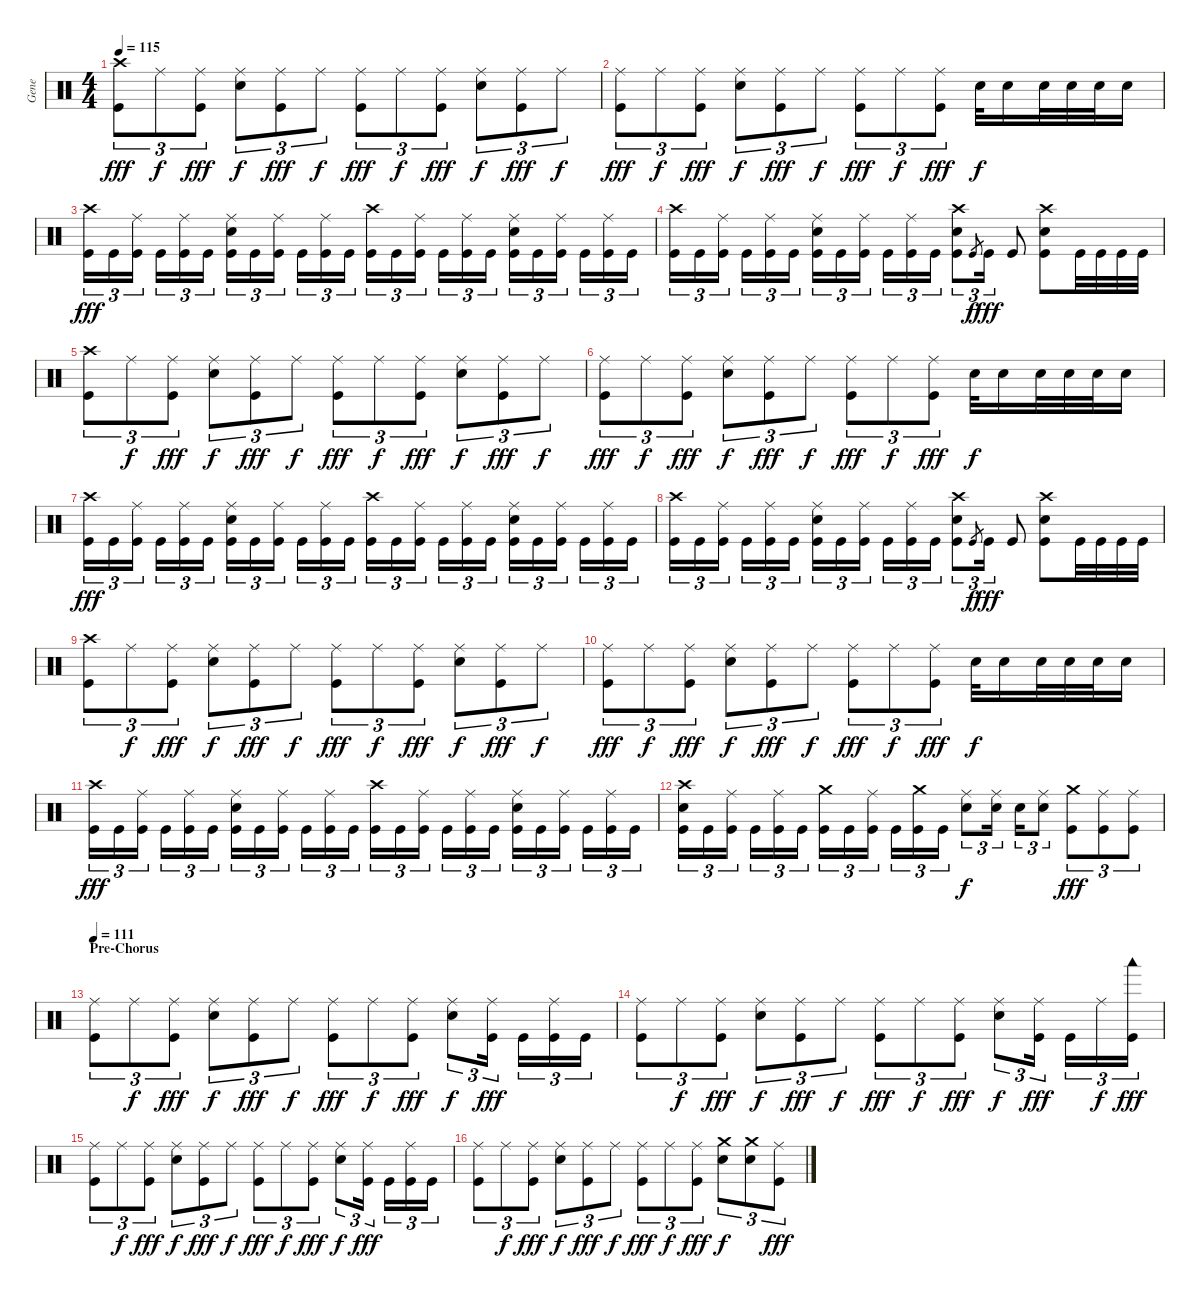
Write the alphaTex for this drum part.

\track ("Gene" "Gene") {instrument percussion}
\staff {score}
\articulation defaults
\ts (4 4)
\tempo 115
\clef neutral
\ks c
("Crash high (hit)" "Kick (hit)").8{tu (3 2) dy fff} "Ride (middle)".8{tu (3 2) dy f} ("Ride (middle)" "Kick (hit)").8{tu (3 2) dy fff} ("Ride (middle)" "Snare (hit) 2").8{tu (3 2) dy f} ("Ride (middle)" "Kick (hit)").8{tu (3 2) dy fff} "Ride (middle)".8{tu (3 2) dy f} ("Ride (middle)" "Kick (hit)").8{tu (3 2) dy fff} "Ride (middle)".8{tu (3 2) dy f} ("Ride (middle)" "Kick (hit)").8{tu (3 2) dy fff} ("Ride (middle)" "Snare (hit) 2").8{tu (3 2) dy f} ("Ride (middle)" "Kick (hit)").8{tu (3 2) dy fff} "Ride (middle)".8{tu (3 2) dy f} |
("Ride (middle)" "Kick (hit)").8{tu (3 2) dy fff} "Ride (middle)".8{tu (3 2) dy f} ("Ride (middle)" "Kick (hit)").8{tu (3 2) dy fff} ("Ride (middle)" "Snare (hit) 2").8{tu (3 2) dy f} ("Ride (middle)" "Kick (hit)").8{tu (3 2) dy fff} "Ride (middle)".8{tu (3 2) dy f} ("Ride (middle)" "Kick (hit)").8{tu (3 2) dy fff} "Ride (middle)".8{tu (3 2) dy f} ("Ride (middle)" "Kick (hit)").8{tu (3 2) dy fff} "Snare (hit) 2".32{dy f} "Snare (hit) 2".16 "Snare (hit) 2".32 "Snare (hit) 2".32 "Snare (hit) 2".32 "Snare (hit) 2".16 |
("Crash high (hit)" "Kick (hit)").16{tu (3 2) dy fff} "Kick (hit)".16{tu (3 2)} ("Ride (middle)" "Kick (hit)").16{tu (3 2)} "Kick (hit)".16{tu (3 2)} ("Ride (middle)" "Kick (hit)").16{tu (3 2)} "Kick (hit)".16{tu (3 2)} ("Ride (middle)" "Snare (hit) 2" "Kick (hit)").16{tu (3 2)} "Kick (hit)".16{tu (3 2)} ("Ride (middle)" "Kick (hit)").16{tu (3 2)} "Kick (hit)".16{tu (3 2)} ("Ride (middle)" "Kick (hit)").16{tu (3 2)} "Kick (hit)".16{tu (3 2)} ("Crash high (hit)" "Kick (hit)").16{tu (3 2)} "Kick (hit)".16{tu (3 2)} ("Ride (middle)" "Kick (hit)").16{tu (3 2)} "Kick (hit)".16{tu (3 2)} ("Ride (middle)" "Kick (hit)").16{tu (3 2)} "Kick (hit)".16{tu (3 2)} ("Ride (middle)" "Snare (hit) 2" "Kick (hit)").16{tu (3 2)} "Kick (hit)".16{tu (3 2)} ("Ride (middle)" "Kick (hit)").16{tu (3 2)} "Kick (hit)".16{tu (3 2)} ("Ride (middle)" "Kick (hit)").16{tu (3 2)} "Kick (hit)".16{tu (3 2)} |
("Crash high (hit)" "Kick (hit)").16{tu (3 2)} "Kick (hit)".16{tu (3 2)} ("Ride (middle)" "Kick (hit)").16{tu (3 2)} "Kick (hit)".16{tu (3 2)} ("Ride (middle)" "Kick (hit)").16{tu (3 2)} "Kick (hit)".16{tu (3 2)} ("Ride (middle)" "Snare (hit) 2" "Kick (hit)").16{tu (3 2)} "Kick (hit)".16{tu (3 2)} ("Ride (middle)" "Kick (hit)").16{tu (3 2)} "Kick (hit)".16{tu (3 2)} ("Ride (middle)" "Kick (hit)").16{tu (3 2)} "Kick (hit)".16{tu (3 2)} ("Crash high (hit)" "Snare (hit) 2" "Kick (hit)").8{tu (3 2)} "Kick (hit)".8{gr dy f} "Kick (hit)".16{tu (3 2) dy fff} "Kick (hit)".8 ("Crash high (hit)" "Snare (hit) 2" "Kick (hit)").8 "Kick (hit)".32 "Kick (hit)".32 "Kick (hit)".32 "Kick (hit)".32 |
("Crash high (hit)" "Kick (hit)").8{tu (3 2)} "Ride (middle)".8{tu (3 2) dy f} ("Ride (middle)" "Kick (hit)").8{tu (3 2) dy fff} ("Ride (middle)" "Snare (hit) 2").8{tu (3 2) dy f} ("Ride (middle)" "Kick (hit)").8{tu (3 2) dy fff} "Ride (middle)".8{tu (3 2) dy f} ("Ride (middle)" "Kick (hit)").8{tu (3 2) dy fff} "Ride (middle)".8{tu (3 2) dy f} ("Ride (middle)" "Kick (hit)").8{tu (3 2) dy fff} ("Ride (middle)" "Snare (hit) 2").8{tu (3 2) dy f} ("Ride (middle)" "Kick (hit)").8{tu (3 2) dy fff} "Ride (middle)".8{tu (3 2) dy f} |
("Ride (middle)" "Kick (hit)").8{tu (3 2) dy fff} "Ride (middle)".8{tu (3 2) dy f} ("Ride (middle)" "Kick (hit)").8{tu (3 2) dy fff} ("Ride (middle)" "Snare (hit) 2").8{tu (3 2) dy f} ("Ride (middle)" "Kick (hit)").8{tu (3 2) dy fff} "Ride (middle)".8{tu (3 2) dy f} ("Ride (middle)" "Kick (hit)").8{tu (3 2) dy fff} "Ride (middle)".8{tu (3 2) dy f} ("Ride (middle)" "Kick (hit)").8{tu (3 2) dy fff} "Snare (hit) 2".32{dy f} "Snare (hit) 2".16 "Snare (hit) 2".32 "Snare (hit) 2".32 "Snare (hit) 2".32 "Snare (hit) 2".16 |
("Crash high (hit)" "Kick (hit)").16{tu (3 2) dy fff} "Kick (hit)".16{tu (3 2)} ("Ride (middle)" "Kick (hit)").16{tu (3 2)} "Kick (hit)".16{tu (3 2)} ("Ride (middle)" "Kick (hit)").16{tu (3 2)} "Kick (hit)".16{tu (3 2)} ("Ride (middle)" "Snare (hit) 2" "Kick (hit)").16{tu (3 2)} "Kick (hit)".16{tu (3 2)} ("Ride (middle)" "Kick (hit)").16{tu (3 2)} "Kick (hit)".16{tu (3 2)} ("Ride (middle)" "Kick (hit)").16{tu (3 2)} "Kick (hit)".16{tu (3 2)} ("Crash high (hit)" "Kick (hit)").16{tu (3 2)} "Kick (hit)".16{tu (3 2)} ("Ride (middle)" "Kick (hit)").16{tu (3 2)} "Kick (hit)".16{tu (3 2)} ("Ride (middle)" "Kick (hit)").16{tu (3 2)} "Kick (hit)".16{tu (3 2)} ("Ride (middle)" "Snare (hit) 2" "Kick (hit)").16{tu (3 2)} "Kick (hit)".16{tu (3 2)} ("Ride (middle)" "Kick (hit)").16{tu (3 2)} "Kick (hit)".16{tu (3 2)} ("Ride (middle)" "Kick (hit)").16{tu (3 2)} "Kick (hit)".16{tu (3 2)} |
("Crash high (hit)" "Kick (hit)").16{tu (3 2)} "Kick (hit)".16{tu (3 2)} ("Ride (middle)" "Kick (hit)").16{tu (3 2)} "Kick (hit)".16{tu (3 2)} ("Ride (middle)" "Kick (hit)").16{tu (3 2)} "Kick (hit)".16{tu (3 2)} ("Ride (middle)" "Snare (hit) 2" "Kick (hit)").16{tu (3 2)} "Kick (hit)".16{tu (3 2)} ("Ride (middle)" "Kick (hit)").16{tu (3 2)} "Kick (hit)".16{tu (3 2)} ("Ride (middle)" "Kick (hit)").16{tu (3 2)} "Kick (hit)".16{tu (3 2)} ("Crash high (hit)" "Snare (hit) 2" "Kick (hit)").8{tu (3 2)} "Kick (hit)".8{gr dy f} "Kick (hit)".16{tu (3 2) dy fff} "Kick (hit)".8 ("Crash high (hit)" "Snare (hit) 2" "Kick (hit)").8 "Kick (hit)".32 "Kick (hit)".32 "Kick (hit)".32 "Kick (hit)".32 |
("Crash high (hit)" "Kick (hit)").8{tu (3 2)} "Ride (middle)".8{tu (3 2) dy f} ("Ride (middle)" "Kick (hit)").8{tu (3 2) dy fff} ("Ride (middle)" "Snare (hit) 2").8{tu (3 2) dy f} ("Ride (middle)" "Kick (hit)").8{tu (3 2) dy fff} "Ride (middle)".8{tu (3 2) dy f} ("Ride (middle)" "Kick (hit)").8{tu (3 2) dy fff} "Ride (middle)".8{tu (3 2) dy f} ("Ride (middle)" "Kick (hit)").8{tu (3 2) dy fff} ("Ride (middle)" "Snare (hit) 2").8{tu (3 2) dy f} ("Ride (middle)" "Kick (hit)").8{tu (3 2) dy fff} "Ride (middle)".8{tu (3 2) dy f} |
("Ride (middle)" "Kick (hit)").8{tu (3 2) dy fff} "Ride (middle)".8{tu (3 2) dy f} ("Ride (middle)" "Kick (hit)").8{tu (3 2) dy fff} ("Ride (middle)" "Snare (hit) 2").8{tu (3 2) dy f} ("Ride (middle)" "Kick (hit)").8{tu (3 2) dy fff} "Ride (middle)".8{tu (3 2) dy f} ("Ride (middle)" "Kick (hit)").8{tu (3 2) dy fff} "Ride (middle)".8{tu (3 2) dy f} ("Ride (middle)" "Kick (hit)").8{tu (3 2) dy fff} "Snare (hit) 2".32{dy f} "Snare (hit) 2".16 "Snare (hit) 2".32 "Snare (hit) 2".32 "Snare (hit) 2".32 "Snare (hit) 2".16 |
("Crash high (hit)" "Kick (hit)").16{tu (3 2) dy fff} "Kick (hit)".16{tu (3 2)} ("Ride (middle)" "Kick (hit)").16{tu (3 2)} "Kick (hit)".16{tu (3 2)} ("Ride (middle)" "Kick (hit)").16{tu (3 2)} "Kick (hit)".16{tu (3 2)} ("Ride (middle)" "Snare (hit) 2" "Kick (hit)").16{tu (3 2)} "Kick (hit)".16{tu (3 2)} ("Ride (middle)" "Kick (hit)").16{tu (3 2)} "Kick (hit)".16{tu (3 2)} ("Ride (middle)" "Kick (hit)").16{tu (3 2)} "Kick (hit)".16{tu (3 2)} ("Crash high (hit)" "Kick (hit)").16{tu (3 2)} "Kick (hit)".16{tu (3 2)} ("Ride (middle)" "Kick (hit)").16{tu (3 2)} "Kick (hit)".16{tu (3 2)} ("Ride (middle)" "Kick (hit)").16{tu (3 2)} "Kick (hit)".16{tu (3 2)} ("Ride (middle)" "Snare (hit) 2" "Kick (hit)").16{tu (3 2)} "Kick (hit)".16{tu (3 2)} ("Ride (middle)" "Kick (hit)").16{tu (3 2)} "Kick (hit)".16{tu (3 2)} ("Ride (middle)" "Kick (hit)").16{tu (3 2)} "Kick (hit)".16{tu (3 2)} |
("Crash high (hit)" "Snare (hit) 2" "Kick (hit)").16{tu (3 2)} "Kick (hit)".16{tu (3 2)} ("Ride (middle)" "Kick (hit)").16{tu (3 2)} "Kick (hit)".16{tu (3 2)} ("Ride (middle)" "Kick (hit)").16{tu (3 2)} "Kick (hit)".16{tu (3 2)} ("Crash medium (hit)" "Kick (hit)").16{tu (3 2)} "Kick (hit)".16{tu (3 2)} ("Ride (middle)" "Kick (hit)").16{tu (3 2)} "Kick (hit)".16{tu (3 2)} ("Crash medium (hit)" "Kick (hit)").16{tu (3 2)} "Kick (hit)".16{tu (3 2)} ("Ride (middle)" "Snare (hit) 2").8{tu (3 2) dy f} ("Ride (middle)" "Snare (hit) 2").16{tu (3 2)} "Snare (hit) 2".16{tu (3 2)} ("Ride (middle)" "Snare (hit) 2").8{tu (3 2)} ("Crash medium (hit)" "Kick (hit)").8{tu (3 2) dy fff} ("Ride (middle)" "Kick (hit)").8{tu (3 2)} ("Ride (middle)" "Kick (hit)").8{tu (3 2)} |
\section ("" "Pre-Chorus")
\tempo 111
("Ride (middle)" "Kick (hit)").8{tu (3 2)} "Ride (middle)".8{tu (3 2) dy f} ("Ride (middle)" "Kick (hit)").8{tu (3 2) dy fff} ("Ride (middle)" "Snare (hit) 2").8{tu (3 2) dy f} ("Ride (middle)" "Kick (hit)").8{tu (3 2) dy fff} "Ride (middle)".8{tu (3 2) dy f} ("Ride (middle)" "Kick (hit)").8{tu (3 2) dy fff} "Ride (middle)".8{tu (3 2) dy f} ("Ride (middle)" "Kick (hit)").8{tu (3 2) dy fff} ("Ride (middle)" "Snare (hit) 2").8{tu (3 2) dy f} ("Ride (middle)" "Kick (hit)").16{tu (3 2) dy fff} "Kick (hit)".16{tu (3 2)} ("Ride (middle)" "Kick (hit)").16{tu (3 2)} "Kick (hit)".16{tu (3 2)} |
("Ride (middle)" "Kick (hit)").8{tu (3 2)} "Ride (middle)".8{tu (3 2) dy f} ("Ride (middle)" "Kick (hit)").8{tu (3 2) dy fff} ("Ride (middle)" "Snare (hit) 2").8{tu (3 2) dy f} ("Ride (middle)" "Kick (hit)").8{tu (3 2) dy fff} "Ride (middle)".8{tu (3 2) dy f} ("Ride (middle)" "Kick (hit)").8{tu (3 2) dy fff} "Ride (middle)".8{tu (3 2) dy f} ("Ride (middle)" "Kick (hit)").8{tu (3 2) dy fff} ("Ride (middle)" "Snare (hit) 2").8{tu (3 2) dy f} ("Ride (middle)" "Kick (hit)").16{tu (3 2) dy fff} "Kick (hit)".16{tu (3 2)} "Ride (middle)".16{tu (3 2) dy f} ("Woodblock low (hit)" "Kick (hit)").16{tu (3 2) dy fff} |
("Ride (middle)" "Kick (hit)").8{tu (3 2)} "Ride (middle)".8{tu (3 2) dy f} ("Ride (middle)" "Kick (hit)").8{tu (3 2) dy fff} ("Ride (middle)" "Snare (hit) 2").8{tu (3 2) dy f} ("Ride (middle)" "Kick (hit)").8{tu (3 2) dy fff} "Ride (middle)".8{tu (3 2) dy f} ("Ride (middle)" "Kick (hit)").8{tu (3 2) dy fff} "Ride (middle)".8{tu (3 2) dy f} ("Ride (middle)" "Kick (hit)").8{tu (3 2) dy fff} ("Ride (middle)" "Snare (hit) 2").8{tu (3 2) dy f} ("Ride (middle)" "Kick (hit)").16{tu (3 2) dy fff} "Kick (hit)".16{tu (3 2)} ("Ride (middle)" "Kick (hit)").16{tu (3 2)} "Kick (hit)".16{tu (3 2)} |
("Ride (middle)" "Kick (hit)").8{tu (3 2)} "Ride (middle)".8{tu (3 2) dy f} ("Ride (middle)" "Kick (hit)").8{tu (3 2) dy fff} ("Ride (middle)" "Snare (hit) 2").8{tu (3 2) dy f} ("Ride (middle)" "Kick (hit)").8{tu (3 2) dy fff} "Ride (middle)".8{tu (3 2) dy f} ("Ride (middle)" "Kick (hit)").8{tu (3 2) dy fff} "Ride (middle)".8{tu (3 2) dy f} ("Ride (middle)" "Kick (hit)").8{tu (3 2) dy fff} ("Crash medium (hit)" "Snare (hit) 2").8{tu (3 2) dy f} ("Crash medium (hit)" "Snare (hit) 2").8{tu (3 2)} ("Ride (middle)" "Kick (hit)").8{tu (3 2) dy fff}
